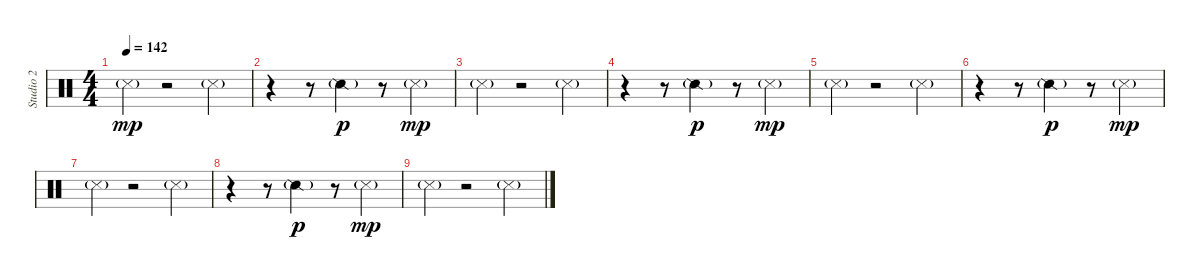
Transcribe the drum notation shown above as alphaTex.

\track ("Studio 2" "Studio 2") {instrument percussion}
\staff {score}
\articulation defaults
\ts (4 4)
\tempo 142
\clef neutral
\ks c "Metronome (hit)"{g}.4{dy mp}
r.2 "Snare (side stick) 3"{g}.4 |
r.4 r.8 "Snare (side stick) 2"{g}.4{dy p} r.8 "Snare (side stick) 3"{g}.4{dy mp} |
"Metronome (hit)"{g}.4 r.2 "Snare (side stick) 3"{g}.4 |
r.4 r.8 "Snare (side stick) 2"{g}.4{dy p} r.8 "Snare (side stick) 3"{g}.4{dy mp} |
"Metronome (hit)"{g}.4 r.2 "Snare (side stick) 3"{g}.4 |
r.4 r.8 "Snare (side stick) 2"{g}.4{dy p} r.8 "Snare (side stick) 3"{g}.4{dy mp} |
"Metronome (hit)"{g}.4 r.2 "Snare (side stick) 3"{g}.4 |
r.4 r.8 "Snare (side stick) 2"{g}.4{dy p} r.8 "Snare (side stick) 3"{g}.4{dy mp} |
"Metronome (hit)"{g}.4 r.2 "Snare (side stick) 3"{g}.4
